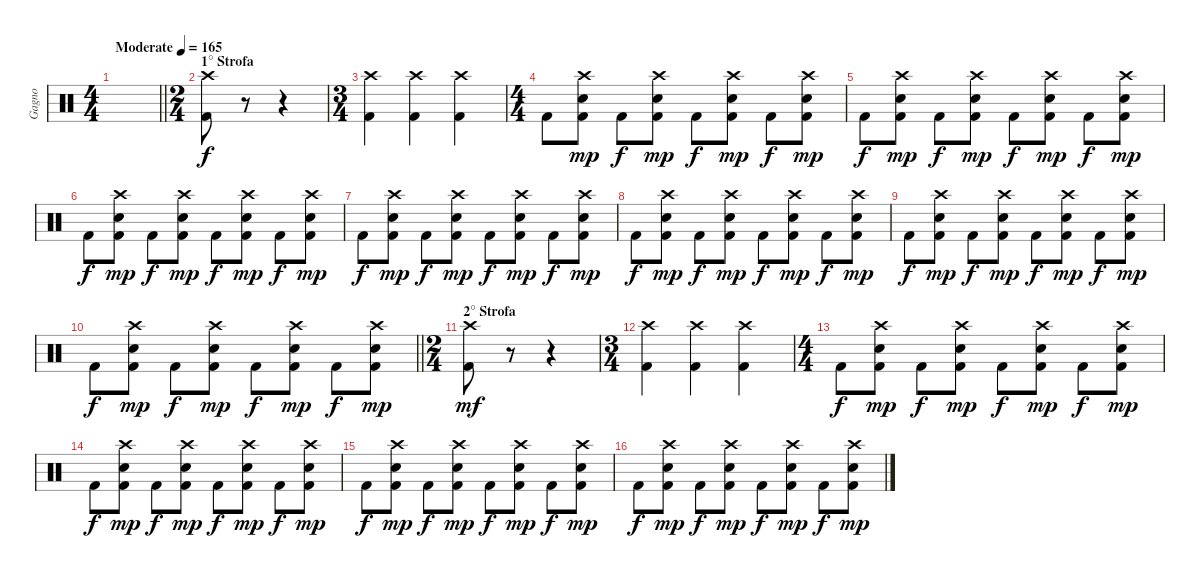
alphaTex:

\track ("Gagno" "Gagno") {instrument percussion}
\staff {score}
\articulation defaults
\ts (4 4)
\tempo (165 "Moderate")
\clef neutral
\barLineRight lightlight
\ks c
|
\ts (2 4)
\section ("" "1° Strofa")
("Crash high (hit)" "Kick (hit) 2").8 r.8 r.4 |
\ts (3 4)
("Crash high (hit)" "Kick (hit) 2").4 ("Crash high (hit)" "Kick (hit) 2").4 ("Crash high (hit)" "Kick (hit) 2").4 |
\ts (4 4)
"Kick (hit) 2".8{dy f} ("Crash high (hit)" "Electric Snare (hit)" "Kick (hit) 2").8{dy mp} "Kick (hit) 2".8{dy f} ("Crash high (hit)" "Electric Snare (hit)" "Kick (hit) 2").8{dy mp} "Kick (hit) 2".8{dy f} ("Crash high (hit)" "Electric Snare (hit)" "Kick (hit) 2").8{dy mp} "Kick (hit) 2".8{dy f} ("Crash high (hit)" "Electric Snare (hit)" "Kick (hit) 2").8{dy mp} |
"Kick (hit) 2".8{dy f} ("Crash high (hit)" "Electric Snare (hit)" "Kick (hit) 2").8{dy mp} "Kick (hit) 2".8{dy f} ("Crash high (hit)" "Electric Snare (hit)" "Kick (hit) 2").8{dy mp} "Kick (hit) 2".8{dy f} ("Crash high (hit)" "Electric Snare (hit)" "Kick (hit) 2").8{dy mp} "Kick (hit) 2".8{dy f} ("Crash high (hit)" "Electric Snare (hit)" "Kick (hit) 2").8{dy mp} |
"Kick (hit) 2".8{dy f} ("Crash high (hit)" "Electric Snare (hit)" "Kick (hit) 2").8{dy mp} "Kick (hit) 2".8{dy f} ("Crash high (hit)" "Electric Snare (hit)" "Kick (hit) 2").8{dy mp} "Kick (hit) 2".8{dy f} ("Crash high (hit)" "Electric Snare (hit)" "Kick (hit) 2").8{dy mp} "Kick (hit) 2".8{dy f} ("Crash high (hit)" "Electric Snare (hit)" "Kick (hit) 2").8{dy mp} |
"Kick (hit) 2".8{dy f} ("Crash high (hit)" "Electric Snare (hit)" "Kick (hit) 2").8{dy mp} "Kick (hit) 2".8{dy f} ("Crash high (hit)" "Electric Snare (hit)" "Kick (hit) 2").8{dy mp} "Kick (hit) 2".8{dy f} ("Crash high (hit)" "Electric Snare (hit)" "Kick (hit) 2").8{dy mp} "Kick (hit) 2".8{dy f} ("Crash high (hit)" "Electric Snare (hit)" "Kick (hit) 2").8{dy mp} |
"Kick (hit) 2".8{dy f} ("Crash high (hit)" "Electric Snare (hit)" "Kick (hit) 2").8{dy mp} "Kick (hit) 2".8{dy f} ("Crash high (hit)" "Electric Snare (hit)" "Kick (hit) 2").8{dy mp} "Kick (hit) 2".8{dy f} ("Crash high (hit)" "Electric Snare (hit)" "Kick (hit) 2").8{dy mp} "Kick (hit) 2".8{dy f} ("Crash high (hit)" "Electric Snare (hit)" "Kick (hit) 2").8{dy mp} |
"Kick (hit) 2".8{dy f} ("Crash high (hit)" "Electric Snare (hit)" "Kick (hit) 2").8{dy mp} "Kick (hit) 2".8{dy f} ("Crash high (hit)" "Electric Snare (hit)" "Kick (hit) 2").8{dy mp} "Kick (hit) 2".8{dy f} ("Crash high (hit)" "Electric Snare (hit)" "Kick (hit) 2").8{dy mp} "Kick (hit) 2".8{dy f} ("Crash high (hit)" "Electric Snare (hit)" "Kick (hit) 2").8{dy mp} |
\barLineRight lightlight "Kick (hit) 2".8{dy f}
("Crash high (hit)" "Electric Snare (hit)" "Kick (hit) 2").8{dy mp} "Kick (hit) 2".8{dy f} ("Crash high (hit)" "Electric Snare (hit)" "Kick (hit) 2").8{dy mp} "Kick (hit) 2".8{dy f} ("Crash high (hit)" "Electric Snare (hit)" "Kick (hit) 2").8{dy mp} "Kick (hit) 2".8{dy f} ("Crash high (hit)" "Electric Snare (hit)" "Kick (hit) 2").8{dy mp} |
\ts (2 4)
\section ("" "2° Strofa")
("Crash high (hit)" "Kick (hit) 2").8{dy mf} r.8 r.4 |
\ts (3 4)
("Crash high (hit)" "Kick (hit) 2").4 ("Crash high (hit)" "Kick (hit) 2").4 ("Crash high (hit)" "Kick (hit) 2").4 |
\ts (4 4)
"Kick (hit) 2".8{dy f} ("Crash high (hit)" "Electric Snare (hit)" "Kick (hit) 2").8{dy mp} "Kick (hit) 2".8{dy f} ("Crash high (hit)" "Electric Snare (hit)" "Kick (hit) 2").8{dy mp} "Kick (hit) 2".8{dy f} ("Crash high (hit)" "Electric Snare (hit)" "Kick (hit) 2").8{dy mp} "Kick (hit) 2".8{dy f} ("Crash high (hit)" "Electric Snare (hit)" "Kick (hit) 2").8{dy mp} |
"Kick (hit) 2".8{dy f} ("Crash high (hit)" "Electric Snare (hit)" "Kick (hit) 2").8{dy mp} "Kick (hit) 2".8{dy f} ("Crash high (hit)" "Electric Snare (hit)" "Kick (hit) 2").8{dy mp} "Kick (hit) 2".8{dy f} ("Crash high (hit)" "Electric Snare (hit)" "Kick (hit) 2").8{dy mp} "Kick (hit) 2".8{dy f} ("Crash high (hit)" "Electric Snare (hit)" "Kick (hit) 2").8{dy mp} |
"Kick (hit) 2".8{dy f} ("Crash high (hit)" "Electric Snare (hit)" "Kick (hit) 2").8{dy mp} "Kick (hit) 2".8{dy f} ("Crash high (hit)" "Electric Snare (hit)" "Kick (hit) 2").8{dy mp} "Kick (hit) 2".8{dy f} ("Crash high (hit)" "Electric Snare (hit)" "Kick (hit) 2").8{dy mp} "Kick (hit) 2".8{dy f} ("Crash high (hit)" "Electric Snare (hit)" "Kick (hit) 2").8{dy mp} |
"Kick (hit) 2".8{dy f} ("Crash high (hit)" "Electric Snare (hit)" "Kick (hit) 2").8{dy mp} "Kick (hit) 2".8{dy f} ("Crash high (hit)" "Electric Snare (hit)" "Kick (hit) 2").8{dy mp} "Kick (hit) 2".8{dy f} ("Crash high (hit)" "Electric Snare (hit)" "Kick (hit) 2").8{dy mp} "Kick (hit) 2".8{dy f} ("Crash high (hit)" "Electric Snare (hit)" "Kick (hit) 2").8{dy mp}
